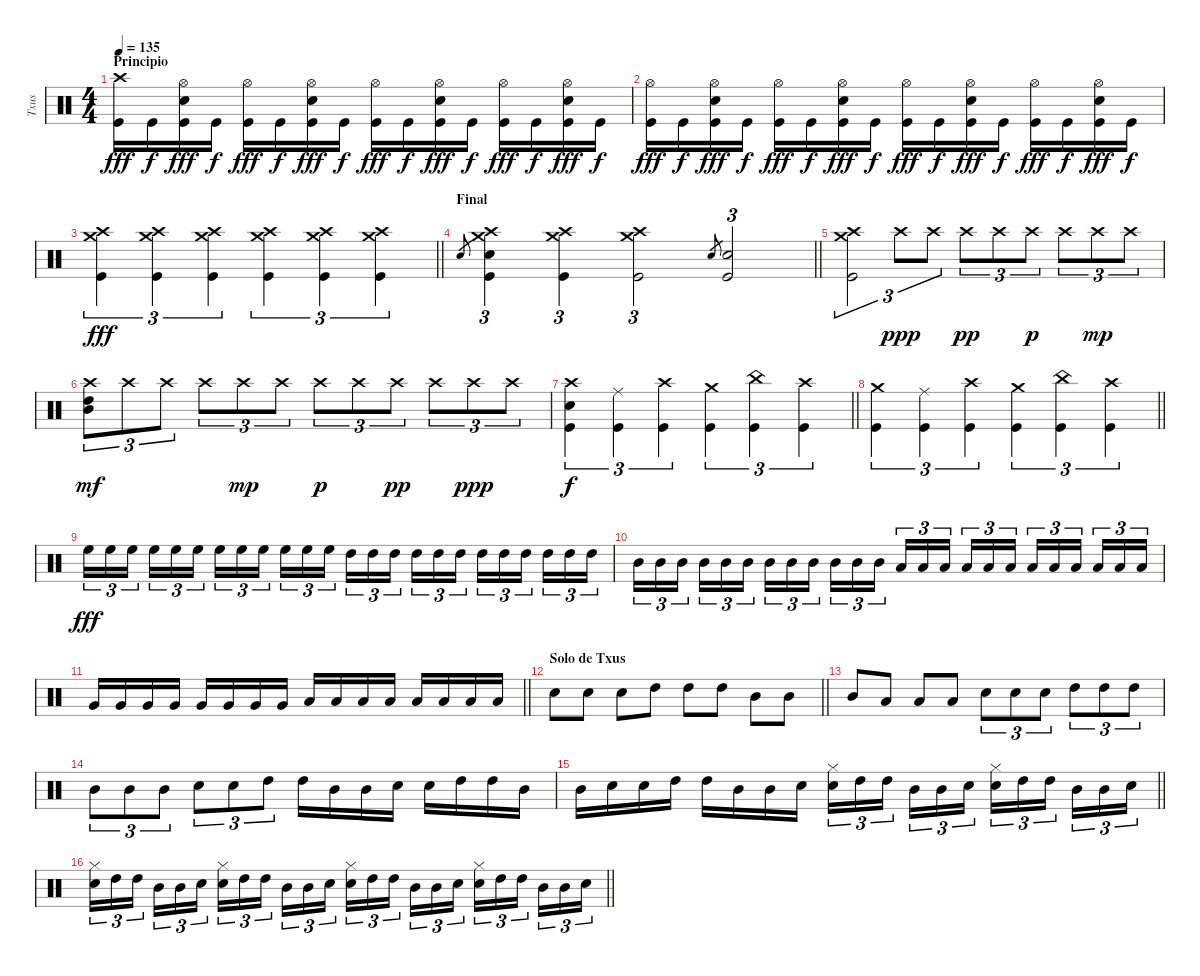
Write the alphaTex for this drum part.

\track ("Txus" "Txus") {instrument percussion}
\staff {score}
\articulation defaults
\ts (4 4)
\section ("" "Principio")
\tempo 135
\clef neutral
\ks c
("Crash high (hit)" "Kick (hit)").16{dy fff} "Kick (hit)".16{dy f} ("Hi-Hat (open)" "Electric Snare (hit)" "Kick (hit)").16{dy fff} "Kick (hit)".16{dy f} ("Hi-Hat (open)" "Kick (hit)").16{dy fff} "Kick (hit)".16{dy f} ("Hi-Hat (open)" "Electric Snare (hit)" "Kick (hit)").16{dy fff} "Kick (hit)".16{dy f} ("Hi-Hat (open)" "Kick (hit)").16{dy fff} "Kick (hit)".16{dy f} ("Hi-Hat (open)" "Electric Snare (hit)" "Kick (hit)").16{dy fff} "Kick (hit)".16{dy f} ("Hi-Hat (open)" "Kick (hit)").16{dy fff} "Kick (hit)".16{dy f} ("Hi-Hat (open)" "Electric Snare (hit)" "Kick (hit)").16{dy fff} "Kick (hit)".16{dy f} |
("Hi-Hat (open)" "Kick (hit)").16{dy fff} "Kick (hit)".16{dy f} ("Hi-Hat (open)" "Electric Snare (hit)" "Kick (hit)").16{dy fff} "Kick (hit)".16{dy f} ("Hi-Hat (open)" "Kick (hit)").16{dy fff} "Kick (hit)".16{dy f} ("Hi-Hat (open)" "Electric Snare (hit)" "Kick (hit)").16{dy fff} "Kick (hit)".16{dy f} ("Hi-Hat (open)" "Kick (hit)").16{dy fff} "Kick (hit)".16{dy f} ("Hi-Hat (open)" "Electric Snare (hit)" "Kick (hit)").16{dy fff} "Kick (hit)".16{dy f} ("Hi-Hat (open)" "Kick (hit)").16{dy fff} "Kick (hit)".16{dy f} ("Hi-Hat (open)" "Electric Snare (hit)" "Kick (hit)").16{dy fff} "Kick (hit)".16{dy f} |
\barLineRight lightlight
("Crash high (hit)" "Crash medium (hit)" "Kick (hit)").4{tu (3 2) dy fff} ("Crash high (hit)" "Crash medium (hit)" "Kick (hit)").4{tu (3 2)} ("Crash high (hit)" "Crash medium (hit)" "Kick (hit)").4{tu (3 2)} ("Crash high (hit)" "Crash medium (hit)" "Kick (hit)").4{tu (3 2)} ("Crash high (hit)" "Crash medium (hit)" "Kick (hit)").4{tu (3 2)} ("Crash high (hit)" "Crash medium (hit)" "Kick (hit)").4{tu (3 2)} |
\section ("" "Final")
\barLineRight lightlight "Electric Snare (hit)".8{gr}
("Crash high (hit)" "Crash medium (hit)" "Electric Snare (hit)" "Kick (hit)").4{tu (3 2)} ("Crash high (hit)" "Crash medium (hit)" "Kick (hit)").4{tu (3 2)} ("Crash high (hit)" "Crash medium (hit)" "Kick (hit)").2{tu (3 2)} "Electric Snare (hit)".8{gr} ("Electric Snare (hit)" "Kick (hit)").2{tu (3 2)} |
("Crash high (hit)" "Crash medium (hit)" "Kick (hit)").2{tu (3 2)} "Crash high (hit)".8{tu (3 2) dy ppp} "Crash high (hit)".8{tu (3 2)} "Crash high (hit)".8{tu (3 2) dy pp} "Crash high (hit)".8{tu (3 2)} "Crash high (hit)".8{tu (3 2) dy p} "Crash high (hit)".8{tu (3 2)} "Crash high (hit)".8{tu (3 2) dy mp} "Crash high (hit)".8{tu (3 2)} |
("Crash high (hit)" "Mid Tom (hit)" "High Tom (hit)").8{tu (3 2) dy mf} "Crash high (hit)".8{tu (3 2)} "Crash high (hit)".8{tu (3 2)} "Crash high (hit)".8{tu (3 2)} "Crash high (hit)".8{tu (3 2) dy mp} "Crash high (hit)".8{tu (3 2)} "Crash high (hit)".8{tu (3 2) dy p} "Crash high (hit)".8{tu (3 2)} "Crash high (hit)".8{tu (3 2) dy pp} "Crash high (hit)".8{tu (3 2)} "Crash high (hit)".8{tu (3 2) dy ppp} "Crash high (hit)".8{tu (3 2)} |
\barLineRight lightlight
("Crash high (hit)" "Electric Snare (hit)" "Kick (hit)").4{tu (3 2) dy f} ("Ride (middle)" "Kick (hit)").4{tu (3 2)} ("Crash high (hit)" "Kick (hit)").4{tu (3 2)} ("Crash medium (hit)" "Kick (hit)").4{tu (3 2)} ("China (hit)" "Kick (hit)").4{tu (3 2)} ("Crash high (hit)" "Kick (hit)").4{tu (3 2)} |
\barLineRight lightlight
("Crash medium (hit)" "Kick (hit)").4{tu (3 2)} ("Ride (middle)" "Kick (hit)").4{tu (3 2)} ("Crash high (hit)" "Kick (hit)").4{tu (3 2)} ("Crash medium (hit)" "Kick (hit)").4{tu (3 2)} ("China (hit)" "Kick (hit)").4{tu (3 2)} ("Crash high (hit)" "Kick (hit)").4{tu (3 2)} |
"High Floor Tom (hit)".16{tu (3 2) dy fff} "High Floor Tom (hit)".16{tu (3 2)} "High Floor Tom (hit)".16{tu (3 2) beam splitsecondary} "High Floor Tom (hit)".16{tu (3 2)} "High Floor Tom (hit)".16{tu (3 2)} "High Floor Tom (hit)".16{tu (3 2)} "High Floor Tom (hit)".16{tu (3 2)} "High Floor Tom (hit)".16{tu (3 2)} "High Floor Tom (hit)".16{tu (3 2) beam splitsecondary} "High Floor Tom (hit)".16{tu (3 2)} "High Floor Tom (hit)".16{tu (3 2)} "High Floor Tom (hit)".16{tu (3 2)} "High Tom (hit)".16{tu (3 2)} "High Tom (hit)".16{tu (3 2)} "High Tom (hit)".16{tu (3 2) beam splitsecondary} "High Tom (hit)".16{tu (3 2)} "High Tom (hit)".16{tu (3 2)} "High Tom (hit)".16{tu (3 2)} "High Tom (hit)".16{tu (3 2)} "High Tom (hit)".16{tu (3 2)} "High Tom (hit)".16{tu (3 2) beam splitsecondary} "High Tom (hit)".16{tu (3 2)} "High Tom (hit)".16{tu (3 2)} "High Tom (hit)".16{tu (3 2)} |
"Mid Tom (hit)".16{tu (3 2)} "Mid Tom (hit)".16{tu (3 2) volume 16} "Mid Tom (hit)".16{tu (3 2) beam splitsecondary} "Mid Tom (hit)".16{tu (3 2)} "Mid Tom (hit)".16{tu (3 2)} "Mid Tom (hit)".16{tu (3 2)} "Mid Tom (hit)".16{tu (3 2)} "Mid Tom (hit)".16{tu (3 2)} "Mid Tom (hit)".16{tu (3 2) beam splitsecondary} "Mid Tom (hit)".16{tu (3 2)} "Mid Tom (hit)".16{tu (3 2)} "Mid Tom (hit)".16{tu (3 2)} "Low Tom (hit)".16{tu (3 2)} "Low Tom (hit)".16{tu (3 2)} "Low Tom (hit)".16{tu (3 2) beam splitsecondary} "Low Tom (hit)".16{tu (3 2)} "Low Tom (hit)".16{tu (3 2)} "Low Tom (hit)".16{tu (3 2)} "Low Tom (hit)".16{tu (3 2)} "Low Tom (hit)".16{tu (3 2)} "Low Tom (hit)".16{tu (3 2) beam splitsecondary} "Low Tom (hit)".16{tu (3 2)} "Low Tom (hit)".16{tu (3 2)} "Low Tom (hit)".16{tu (3 2)} |
\barLineRight lightlight "Very Low Tom (hit)".16{volume 16} "Very Low Tom (hit)".16 "Very Low Tom (hit)".16 "Very Low Tom (hit)".16 "Very Low Tom (hit)".16 "Very Low Tom (hit)".16 "Very Low Tom (hit)".16 "Very Low Tom (hit)".16 "Low Floor Tom (hit)".16 "Low Floor Tom (hit)".16 "Low Floor Tom (hit)".16 "Low Floor Tom (hit)".16 "Low Floor Tom (hit)".16 "Low Floor Tom (hit)".16 "Low Floor Tom (hit)".16 "Low Floor Tom (hit)".16
|
\section ("" "Solo de Txus")
\barLineRight lightlight "Electric Snare (hit)".8{volume 16} "Electric Snare (hit)".8 "Electric Snare (hit)".8 "High Tom (hit)".8 "High Tom (hit)".8 "High Tom (hit)".8 "Mid Tom (hit)".8 "Mid Tom (hit)".8
|
"Mid Tom (hit)".8{volume 16} "Low Tom (hit)".8 "Low Tom (hit)".8 "Low Tom (hit)".8 "Electric Snare (hit)".8{tu (3 2)} "Electric Snare (hit)".8{tu (3 2)} "Electric Snare (hit)".8{tu (3 2)} "High Tom (hit)".8{tu (3 2)} "High Tom (hit)".8{tu (3 2)} "High Tom (hit)".8{tu (3 2)} |
"Mid Tom (hit)".8{tu (3 2) volume 16} "Mid Tom (hit)".8{tu (3 2)} "Mid Tom (hit)".8{tu (3 2)} "Electric Snare (hit)".8{tu (3 2)} "Electric Snare (hit)".8{tu (3 2)} "High Tom (hit)".8{tu (3 2)} "High Tom (hit)".16 "Mid Tom (hit)".16 "Mid Tom (hit)".16 "Electric Snare (hit)".16 "Electric Snare (hit)".16 "High Tom (hit)".16 "High Tom (hit)".16 "Mid Tom (hit)".16 |
\barLineRight lightlight "Mid Tom (hit)".16{volume 16} "Electric Snare (hit)".16 "Electric Snare (hit)".16 "High Tom (hit)".16 "High Tom (hit)".16 "Mid Tom (hit)".16 "Mid Tom (hit)".16 "Electric Snare (hit)".16
("Electric Snare (hit)" "Hi-Hat (closed)").16{tu (3 2)} "High Tom (hit)".16{tu (3 2)} "High Tom (hit)".16{tu (3 2) beam splitsecondary} "Mid Tom (hit)".16{tu (3 2)} "Mid Tom (hit)".16{tu (3 2)} "Electric Snare (hit)".16{tu (3 2)} ("Electric Snare (hit)" "Hi-Hat (closed)").16{tu (3 2)} "High Tom (hit)".16{tu (3 2)} "High Tom (hit)".16{tu (3 2) beam splitsecondary} "Mid Tom (hit)".16{tu (3 2)} "Mid Tom (hit)".16{tu (3 2)} "Electric Snare (hit)".16{tu (3 2)} |
\barLineRight lightlight
("Electric Snare (hit)" "Hi-Hat (closed)").16{tu (3 2)} "High Tom (hit)".16{tu (3 2)} "High Tom (hit)".16{tu (3 2) beam splitsecondary} "Mid Tom (hit)".16{tu (3 2)} "Mid Tom (hit)".16{tu (3 2)} "Electric Snare (hit)".16{tu (3 2)} ("Electric Snare (hit)" "Hi-Hat (closed)").16{tu (3 2)} "High Tom (hit)".16{tu (3 2)} "High Tom (hit)".16{tu (3 2) beam splitsecondary} "Mid Tom (hit)".16{tu (3 2)} "Mid Tom (hit)".16{tu (3 2)} "Electric Snare (hit)".16{tu (3 2)} ("Electric Snare (hit)" "Hi-Hat (closed)").16{tu (3 2)} "High Tom (hit)".16{tu (3 2)} "High Tom (hit)".16{tu (3 2) beam splitsecondary} "Mid Tom (hit)".16{tu (3 2)} "Mid Tom (hit)".16{tu (3 2)} "Electric Snare (hit)".16{tu (3 2)} ("Electric Snare (hit)" "Hi-Hat (closed)").16{tu (3 2)} "High Tom (hit)".16{tu (3 2)} "High Tom (hit)".16{tu (3 2) beam splitsecondary} "Mid Tom (hit)".16{tu (3 2)} "Mid Tom (hit)".16{tu (3 2)} "Electric Snare (hit)".16{tu (3 2)}
